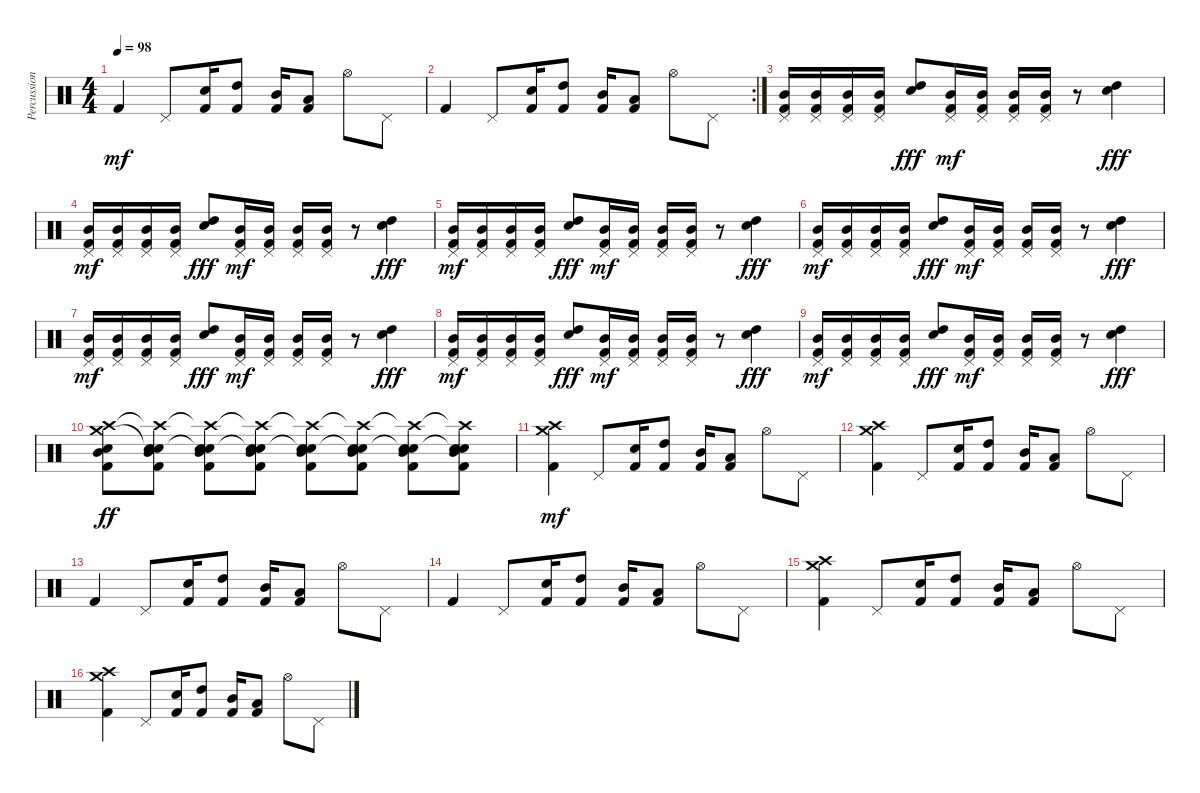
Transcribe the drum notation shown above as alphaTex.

\track ("Percussion" "Percussion") {instrument percussion}
\staff {score}
\articulation defaults
\ts (4 4)
\tempo 98
\clef neutral
\ks c "Kick (hit) 2".4{dy mf} "Pedal Hi-Hat (hit)".8
("Snare (hit) 2" "Kick (hit) 2").16 ("High Tom (hit)" "Kick (hit) 2").8 ("Mid Tom (hit)" "Kick (hit) 2").16 ("Low Tom (hit)" "Kick (hit) 2").8 "Hi-Hat (open)".8 "Pedal Hi-Hat (hit)".8 |
\rc 2 "Kick (hit) 2".4 "Pedal Hi-Hat (hit)".8
("Snare (hit) 2" "Kick (hit) 2").16 ("High Tom (hit)" "Kick (hit) 2").8 ("Mid Tom (hit)" "Kick (hit) 2").16 ("Low Tom (hit)" "Kick (hit) 2").8 "Hi-Hat (open)".8 "Pedal Hi-Hat (hit)".8 |
("Pedal Hi-Hat (hit)" "Mid Tom (hit)" "Kick (hit) 2").16 ("Pedal Hi-Hat (hit)" "Mid Tom (hit)" "Kick (hit) 2").16 ("Pedal Hi-Hat (hit)" "Mid Tom (hit)" "Kick (hit) 2").16 ("Pedal Hi-Hat (hit)" "Mid Tom (hit)" "Kick (hit) 2").16 ("Snare (hit) 2" "High Tom (hit)").8{dy fff} ("Pedal Hi-Hat (hit)" "Mid Tom (hit)" "Kick (hit) 2").16{dy mf} ("Pedal Hi-Hat (hit)" "Mid Tom (hit)" "Kick (hit) 2").16 ("Pedal Hi-Hat (hit)" "Mid Tom (hit)" "Kick (hit) 2").16 ("Pedal Hi-Hat (hit)" "Mid Tom (hit)" "Kick (hit) 2").16 r.8 ("Snare (hit) 2" "High Tom (hit)").4{dy fff} |
("Pedal Hi-Hat (hit)" "Mid Tom (hit)" "Kick (hit) 2").16{dy mf} ("Pedal Hi-Hat (hit)" "Mid Tom (hit)" "Kick (hit) 2").16 ("Pedal Hi-Hat (hit)" "Mid Tom (hit)" "Kick (hit) 2").16 ("Pedal Hi-Hat (hit)" "Mid Tom (hit)" "Kick (hit) 2").16 ("Snare (hit) 2" "High Tom (hit)").8{dy fff} ("Pedal Hi-Hat (hit)" "Mid Tom (hit)" "Kick (hit) 2").16{dy mf} ("Pedal Hi-Hat (hit)" "Mid Tom (hit)" "Kick (hit) 2").16 ("Pedal Hi-Hat (hit)" "Mid Tom (hit)" "Kick (hit) 2").16 ("Pedal Hi-Hat (hit)" "Mid Tom (hit)" "Kick (hit) 2").16 r.8 ("Snare (hit) 2" "High Tom (hit)").4{dy fff} |
("Pedal Hi-Hat (hit)" "Mid Tom (hit)" "Kick (hit) 2").16{dy mf} ("Pedal Hi-Hat (hit)" "Mid Tom (hit)" "Kick (hit) 2").16 ("Pedal Hi-Hat (hit)" "Mid Tom (hit)" "Kick (hit) 2").16 ("Pedal Hi-Hat (hit)" "Mid Tom (hit)" "Kick (hit) 2").16 ("Snare (hit) 2" "High Tom (hit)").8{dy fff} ("Pedal Hi-Hat (hit)" "Mid Tom (hit)" "Kick (hit) 2").16{dy mf} ("Pedal Hi-Hat (hit)" "Mid Tom (hit)" "Kick (hit) 2").16 ("Pedal Hi-Hat (hit)" "Mid Tom (hit)" "Kick (hit) 2").16 ("Pedal Hi-Hat (hit)" "Mid Tom (hit)" "Kick (hit) 2").16 r.8 ("Snare (hit) 2" "High Tom (hit)").4{dy fff} |
("Pedal Hi-Hat (hit)" "Mid Tom (hit)" "Kick (hit) 2").16{dy mf} ("Pedal Hi-Hat (hit)" "Mid Tom (hit)" "Kick (hit) 2").16 ("Pedal Hi-Hat (hit)" "Mid Tom (hit)" "Kick (hit) 2").16 ("Pedal Hi-Hat (hit)" "Mid Tom (hit)" "Kick (hit) 2").16 ("Snare (hit) 2" "High Tom (hit)").8{dy fff} ("Pedal Hi-Hat (hit)" "Mid Tom (hit)" "Kick (hit) 2").16{dy mf} ("Pedal Hi-Hat (hit)" "Mid Tom (hit)" "Kick (hit) 2").16 ("Pedal Hi-Hat (hit)" "Mid Tom (hit)" "Kick (hit) 2").16 ("Pedal Hi-Hat (hit)" "Mid Tom (hit)" "Kick (hit) 2").16 r.8 ("Snare (hit) 2" "High Tom (hit)").4{dy fff} |
("Pedal Hi-Hat (hit)" "Mid Tom (hit)" "Kick (hit) 2").16{dy mf} ("Pedal Hi-Hat (hit)" "Mid Tom (hit)" "Kick (hit) 2").16 ("Pedal Hi-Hat (hit)" "Mid Tom (hit)" "Kick (hit) 2").16 ("Pedal Hi-Hat (hit)" "Mid Tom (hit)" "Kick (hit) 2").16 ("Snare (hit) 2" "High Tom (hit)").8{dy fff} ("Pedal Hi-Hat (hit)" "Mid Tom (hit)" "Kick (hit) 2").16{dy mf} ("Pedal Hi-Hat (hit)" "Mid Tom (hit)" "Kick (hit) 2").16 ("Pedal Hi-Hat (hit)" "Mid Tom (hit)" "Kick (hit) 2").16 ("Pedal Hi-Hat (hit)" "Mid Tom (hit)" "Kick (hit) 2").16 r.8 ("Snare (hit) 2" "High Tom (hit)").4{dy fff} |
("Pedal Hi-Hat (hit)" "Mid Tom (hit)" "Kick (hit) 2").16{dy mf} ("Pedal Hi-Hat (hit)" "Mid Tom (hit)" "Kick (hit) 2").16 ("Pedal Hi-Hat (hit)" "Mid Tom (hit)" "Kick (hit) 2").16 ("Pedal Hi-Hat (hit)" "Mid Tom (hit)" "Kick (hit) 2").16 ("Snare (hit) 2" "High Tom (hit)").8{dy fff} ("Pedal Hi-Hat (hit)" "Mid Tom (hit)" "Kick (hit) 2").16{dy mf} ("Pedal Hi-Hat (hit)" "Mid Tom (hit)" "Kick (hit) 2").16 ("Pedal Hi-Hat (hit)" "Mid Tom (hit)" "Kick (hit) 2").16 ("Pedal Hi-Hat (hit)" "Mid Tom (hit)" "Kick (hit) 2").16 r.8 ("Snare (hit) 2" "High Tom (hit)").4{dy fff} |
("Pedal Hi-Hat (hit)" "Mid Tom (hit)" "Kick (hit) 2").16{dy mf} ("Pedal Hi-Hat (hit)" "Mid Tom (hit)" "Kick (hit) 2").16 ("Pedal Hi-Hat (hit)" "Mid Tom (hit)" "Kick (hit) 2").16 ("Pedal Hi-Hat (hit)" "Mid Tom (hit)" "Kick (hit) 2").16 ("Snare (hit) 2" "High Tom (hit)").8{dy fff} ("Pedal Hi-Hat (hit)" "Mid Tom (hit)" "Kick (hit) 2").16{dy mf} ("Pedal Hi-Hat (hit)" "Mid Tom (hit)" "Kick (hit) 2").16 ("Pedal Hi-Hat (hit)" "Mid Tom (hit)" "Kick (hit) 2").16 ("Pedal Hi-Hat (hit)" "Mid Tom (hit)" "Kick (hit) 2").16 r.8 ("Snare (hit) 2" "High Tom (hit)").4{dy fff} |
("Crash medium (hit)" "Crash high (hit)" "Snare (hit) 2" "Mid Tom (hit)" "Kick (hit) 2").8{dy ff} ("Snare (hit)"{t} "Crash high (hit)"{t} "Snare (hit) 2" "Mid Tom (hit)" "Kick (hit) 2").8 ("Snare (hit)"{t} "Crash high (hit)"{t} "Snare (hit) 2" "Mid Tom (hit)" "Kick (hit) 2").8 ("Snare (hit)"{t} "Crash high (hit)"{t} "Snare (hit) 2" "Mid Tom (hit)" "Kick (hit) 2").8 ("Snare (hit)"{t} "Crash high (hit)"{t} "Snare (hit) 2" "Mid Tom (hit)" "Kick (hit) 2").8 ("Snare (hit)"{t} "Crash high (hit)"{t} "Snare (hit) 2" "Mid Tom (hit)" "Kick (hit) 2").8 ("Snare (hit)"{t} "Crash high (hit)"{t} "Snare (hit) 2" "Mid Tom (hit)" "Kick (hit) 2").8 ("Snare (hit)"{t} "Crash high (hit)"{t} "Snare (hit) 2" "Mid Tom (hit)" "Kick (hit) 2").8 |
("Crash high (hit)" "Crash medium (hit)" "Kick (hit) 2").4{dy mf volume 11} "Pedal Hi-Hat (hit)".8 ("Snare (hit) 2" "Kick (hit) 2").16 ("High Tom (hit)" "Kick (hit) 2").8 ("Mid Tom (hit)" "Kick (hit) 2").16 ("Low Tom (hit)" "Kick (hit) 2").8 "Hi-Hat (open)".8 "Pedal Hi-Hat (hit)".8 |
("Crash high (hit)" "Crash medium (hit)" "Kick (hit) 2").4{volume 11} "Pedal Hi-Hat (hit)".8 ("Snare (hit) 2" "Kick (hit) 2").16 ("High Tom (hit)" "Kick (hit) 2").8 ("Mid Tom (hit)" "Kick (hit) 2").16 ("Low Tom (hit)" "Kick (hit) 2").8 "Hi-Hat (open)".8 "Pedal Hi-Hat (hit)".8 |
"Kick (hit) 2".4 "Pedal Hi-Hat (hit)".8 ("Snare (hit) 2" "Kick (hit) 2").16 ("High Tom (hit)" "Kick (hit) 2").8 ("Mid Tom (hit)" "Kick (hit) 2").16 ("Low Tom (hit)" "Kick (hit) 2").8 "Hi-Hat (open)".8 "Pedal Hi-Hat (hit)".8 |
"Kick (hit) 2".4 "Pedal Hi-Hat (hit)".8 ("Snare (hit) 2" "Kick (hit) 2").16 ("High Tom (hit)" "Kick (hit) 2").8 ("Mid Tom (hit)" "Kick (hit) 2").16 ("Low Tom (hit)" "Kick (hit) 2").8 "Hi-Hat (open)".8 "Pedal Hi-Hat (hit)".8 |
("Crash high (hit)" "Crash medium (hit)" "Kick (hit) 2").4{volume 11} "Pedal Hi-Hat (hit)".8 ("Snare (hit) 2" "Kick (hit) 2").16 ("High Tom (hit)" "Kick (hit) 2").8 ("Mid Tom (hit)" "Kick (hit) 2").16 ("Low Tom (hit)" "Kick (hit) 2").8 "Hi-Hat (open)".8 "Pedal Hi-Hat (hit)".8 |
("Crash high (hit)" "Crash medium (hit)" "Kick (hit) 2").4{volume 11} "Pedal Hi-Hat (hit)".8 ("Snare (hit) 2" "Kick (hit) 2").16 ("High Tom (hit)" "Kick (hit) 2").8 ("Mid Tom (hit)" "Kick (hit) 2").16 ("Low Tom (hit)" "Kick (hit) 2").8 "Hi-Hat (open)".8 "Pedal Hi-Hat (hit)".8
